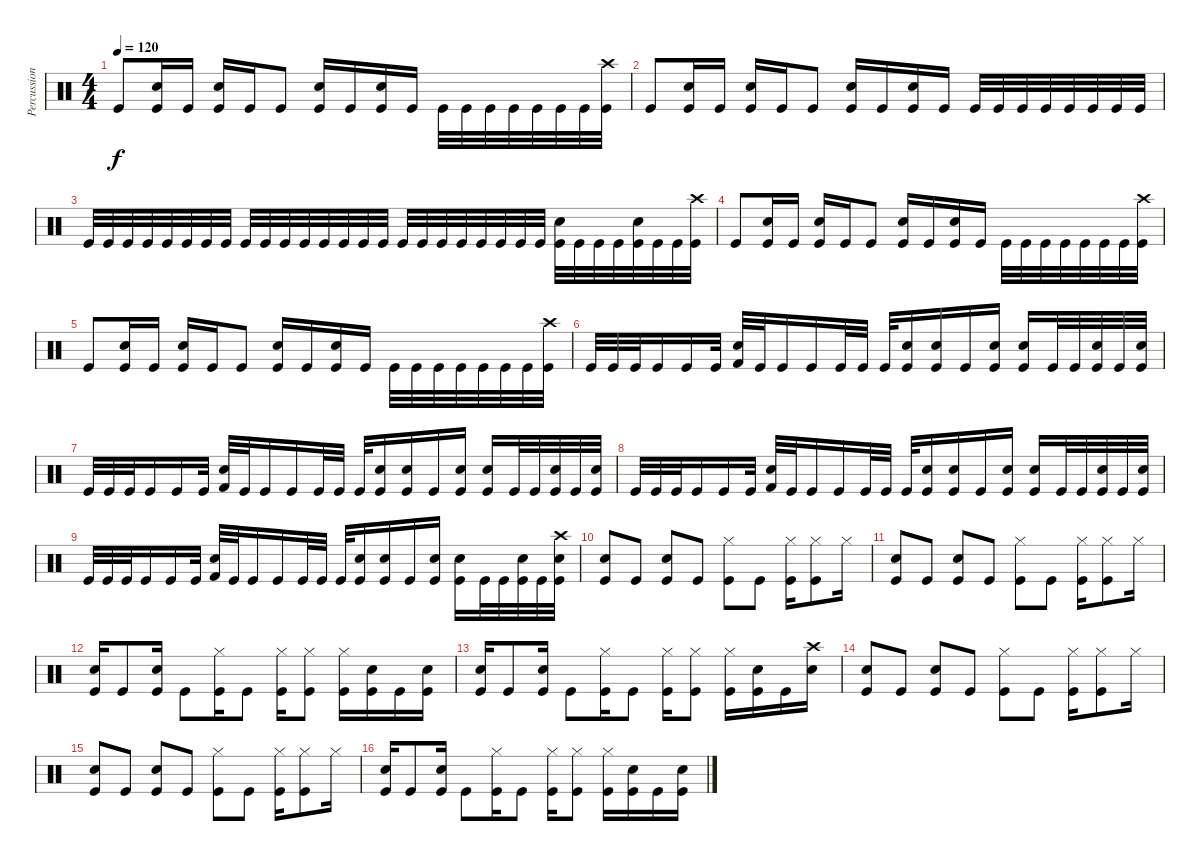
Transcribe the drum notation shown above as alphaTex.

\track ("Percussion" "Percussion") {instrument percussion}
\staff {score}
\articulation defaults
\ts (4 4)
\tempo 120
\clef neutral
\ks c "Kick (hit)".8{dy f}
("Snare (hit) 2" "Kick (hit)").16 "Kick (hit)".16 ("Snare (hit) 2" "Kick (hit)").16 "Kick (hit)".16 "Kick (hit)".8 ("Snare (hit) 2" "Kick (hit)").16 "Kick (hit)".16 ("Snare (hit) 2" "Kick (hit)").16 "Kick (hit)".16 "Kick (hit)".32 "Kick (hit)".32 "Kick (hit)".32 "Kick (hit)".32 "Kick (hit)".32 "Kick (hit)".32 "Kick (hit)".32 ("Crash high (hit)" "Kick (hit)").32 |
"Kick (hit)".8 ("Snare (hit) 2" "Kick (hit)").16 "Kick (hit)".16 ("Snare (hit) 2" "Kick (hit)").16 "Kick (hit)".16 "Kick (hit)".8 ("Snare (hit) 2" "Kick (hit)").16 "Kick (hit)".16 ("Snare (hit) 2" "Kick (hit)").16 "Kick (hit)".16 "Kick (hit)".32 "Kick (hit)".32 "Kick (hit)".32 "Kick (hit)".32 "Kick (hit)".32 "Kick (hit)".32 "Kick (hit)".32 "Kick (hit)".32 |
"Kick (hit)".32 "Kick (hit)".32 "Kick (hit)".32 "Kick (hit)".32 "Kick (hit)".32 "Kick (hit)".32 "Kick (hit)".32 "Kick (hit)".32 "Kick (hit)".32 "Kick (hit)".32 "Kick (hit)".32 "Kick (hit)".32 "Kick (hit)".32 "Kick (hit)".32 "Kick (hit)".32 "Kick (hit)".32 "Kick (hit)".32 "Kick (hit)".32 "Kick (hit)".32 "Kick (hit)".32 "Kick (hit)".32 "Kick (hit)".32 "Kick (hit)".32 "Kick (hit)".32 ("Snare (hit) 2" "Kick (hit)").32 "Kick (hit)".32 "Kick (hit)".32 "Kick (hit)".32 ("Snare (hit) 2" "Kick (hit)").32 "Kick (hit)".32 "Kick (hit)".32 ("Crash high (hit)" "Kick (hit)").32 |
"Kick (hit)".8 ("Snare (hit) 2" "Kick (hit)").16 "Kick (hit)".16 ("Snare (hit) 2" "Kick (hit)").16 "Kick (hit)".16 "Kick (hit)".8 ("Snare (hit) 2" "Kick (hit)").16 "Kick (hit)".16 ("Snare (hit) 2" "Kick (hit)").16 "Kick (hit)".16 "Kick (hit)".32 "Kick (hit)".32 "Kick (hit)".32 "Kick (hit)".32 "Kick (hit)".32 "Kick (hit)".32 "Kick (hit)".32 ("Crash high (hit)" "Kick (hit)").32 |
"Kick (hit)".8 ("Snare (hit) 2" "Kick (hit)").16 "Kick (hit)".16 ("Snare (hit) 2" "Kick (hit)").16 "Kick (hit)".16 "Kick (hit)".8 ("Snare (hit) 2" "Kick (hit)").16 "Kick (hit)".16 ("Snare (hit) 2" "Kick (hit)").16 "Kick (hit)".16 "Kick (hit)".32 "Kick (hit)".32 "Kick (hit)".32 "Kick (hit)".32 "Kick (hit)".32 "Kick (hit)".32 "Kick (hit)".32 ("Crash high (hit)" "Kick (hit)").32 |
"Kick (hit)".32 "Kick (hit)".32 "Kick (hit)".32 "Kick (hit)".16 "Kick (hit)".16 "Kick (hit)".32 ("Snare (hit) 2" "Kick (hit) 2").32 "Kick (hit)".32 "Kick (hit)".16 "Kick (hit)".16 "Kick (hit)".32 "Kick (hit)".32 "Kick (hit)".32 ("Snare (hit) 2" "Kick (hit)").16 ("Snare (hit) 2" "Kick (hit)").16 "Kick (hit)".16 ("Snare (hit) 2" "Kick (hit)").16 ("Snare (hit) 2" "Kick (hit)").16 "Kick (hit)".32 "Kick (hit)".32 ("Snare (hit) 2" "Kick (hit)").32 "Kick (hit)".32 ("Snare (hit) 2" "Kick (hit)").32 |
"Kick (hit)".32 "Kick (hit)".32 "Kick (hit)".32 "Kick (hit)".16 "Kick (hit)".16 "Kick (hit)".32 ("Snare (hit) 2" "Kick (hit) 2").32 "Kick (hit)".32 "Kick (hit)".16 "Kick (hit)".16 "Kick (hit)".32 "Kick (hit)".32 "Kick (hit)".32 ("Snare (hit) 2" "Kick (hit)").16 ("Snare (hit) 2" "Kick (hit)").16 "Kick (hit)".16 ("Snare (hit) 2" "Kick (hit)").16 ("Snare (hit) 2" "Kick (hit)").16 "Kick (hit)".32 "Kick (hit)".32 ("Snare (hit) 2" "Kick (hit)").32 "Kick (hit)".32 ("Snare (hit) 2" "Kick (hit)").32 |
"Kick (hit)".32 "Kick (hit)".32 "Kick (hit)".32 "Kick (hit)".16 "Kick (hit)".16 "Kick (hit)".32 ("Snare (hit) 2" "Kick (hit) 2").32 "Kick (hit)".32 "Kick (hit)".16 "Kick (hit)".16 "Kick (hit)".32 "Kick (hit)".32 "Kick (hit)".32 ("Snare (hit) 2" "Kick (hit)").16 ("Snare (hit) 2" "Kick (hit)").16 "Kick (hit)".16 ("Snare (hit) 2" "Kick (hit)").16 ("Snare (hit) 2" "Kick (hit)").16 "Kick (hit)".32 "Kick (hit)".32 ("Snare (hit) 2" "Kick (hit)").32 "Kick (hit)".32 ("Snare (hit) 2" "Kick (hit)").32 |
"Kick (hit)".32 "Kick (hit)".32 "Kick (hit)".32 "Kick (hit)".16 "Kick (hit)".16 "Kick (hit)".32 ("Snare (hit) 2" "Kick (hit) 2").32 "Kick (hit)".32 "Kick (hit)".16 "Kick (hit)".16 "Kick (hit)".32 "Kick (hit)".32 "Kick (hit)".32 ("Snare (hit) 2" "Kick (hit)").16 ("Snare (hit) 2" "Kick (hit)").16 "Kick (hit)".16 ("Snare (hit) 2" "Kick (hit)").16 ("Snare (hit) 2" "Kick (hit)").16 "Kick (hit)".32 "Kick (hit)".32 ("Snare (hit) 2" "Kick (hit)").32 "Kick (hit)".32 ("Crash high (hit)" "Snare (hit) 2" "Kick (hit)").32 |
("Kick (hit)" "Snare (hit) 2").8 "Kick (hit)".8 ("Kick (hit)" "Snare (hit) 2").8 "Kick (hit)".8 ("Kick (hit)" "Hi-Hat (closed)").8 "Kick (hit)".8 ("Kick (hit)" "Hi-Hat (closed)").16 ("Kick (hit)" "Hi-Hat (closed)").8 "Hi-Hat (closed)".16 |
("Kick (hit)" "Snare (hit) 2").8 "Kick (hit)".8 ("Kick (hit)" "Snare (hit) 2").8 "Kick (hit)".8 ("Kick (hit)" "Hi-Hat (closed)").8 "Kick (hit)".8 ("Kick (hit)" "Hi-Hat (closed)").16 ("Kick (hit)" "Hi-Hat (closed)").8 "Hi-Hat (closed)".16 |
("Kick (hit)" "Snare (hit) 2").16 "Kick (hit)".8 ("Kick (hit)" "Snare (hit) 2").16 "Kick (hit)".8 ("Kick (hit)" "Hi-Hat (closed)").16 "Kick (hit)".8 ("Kick (hit)" "Hi-Hat (closed)").16 ("Kick (hit)" "Hi-Hat (closed)").8 ("Kick (hit)" "Hi-Hat (closed)").16 ("Kick (hit)" "Snare (hit) 2").16 "Kick (hit)".16 ("Kick (hit)" "Snare (hit) 2").16 |
("Kick (hit)" "Snare (hit) 2").16 "Kick (hit)".8 ("Kick (hit)" "Snare (hit) 2").16 "Kick (hit)".8 ("Kick (hit)" "Hi-Hat (closed)").16 "Kick (hit)".8 ("Kick (hit)" "Hi-Hat (closed)").16 ("Kick (hit)" "Hi-Hat (closed)").8 ("Kick (hit)" "Hi-Hat (closed)").16 ("Kick (hit)" "Snare (hit) 2").16 "Kick (hit)".16 ("Crash high (hit)" "Snare (hit) 2").16 |
("Kick (hit)" "Snare (hit) 2").8 "Kick (hit)".8 ("Kick (hit)" "Snare (hit) 2").8 "Kick (hit)".8 ("Kick (hit)" "Hi-Hat (closed)").8 "Kick (hit)".8 ("Kick (hit)" "Hi-Hat (closed)").16 ("Kick (hit)" "Hi-Hat (closed)").8 "Hi-Hat (closed)".16 |
("Kick (hit)" "Snare (hit) 2").8 "Kick (hit)".8 ("Kick (hit)" "Snare (hit) 2").8 "Kick (hit)".8 ("Kick (hit)" "Hi-Hat (closed)").8 "Kick (hit)".8 ("Kick (hit)" "Hi-Hat (closed)").16 ("Kick (hit)" "Hi-Hat (closed)").8 "Hi-Hat (closed)".16 |
("Kick (hit)" "Snare (hit) 2").16 "Kick (hit)".8 ("Kick (hit)" "Snare (hit) 2").16 "Kick (hit)".8 ("Kick (hit)" "Hi-Hat (closed)").16 "Kick (hit)".8 ("Kick (hit)" "Hi-Hat (closed)").16 ("Kick (hit)" "Hi-Hat (closed)").8 ("Kick (hit)" "Hi-Hat (closed)").16 ("Kick (hit)" "Snare (hit) 2").16 "Kick (hit)".16 ("Kick (hit)" "Snare (hit) 2").16
